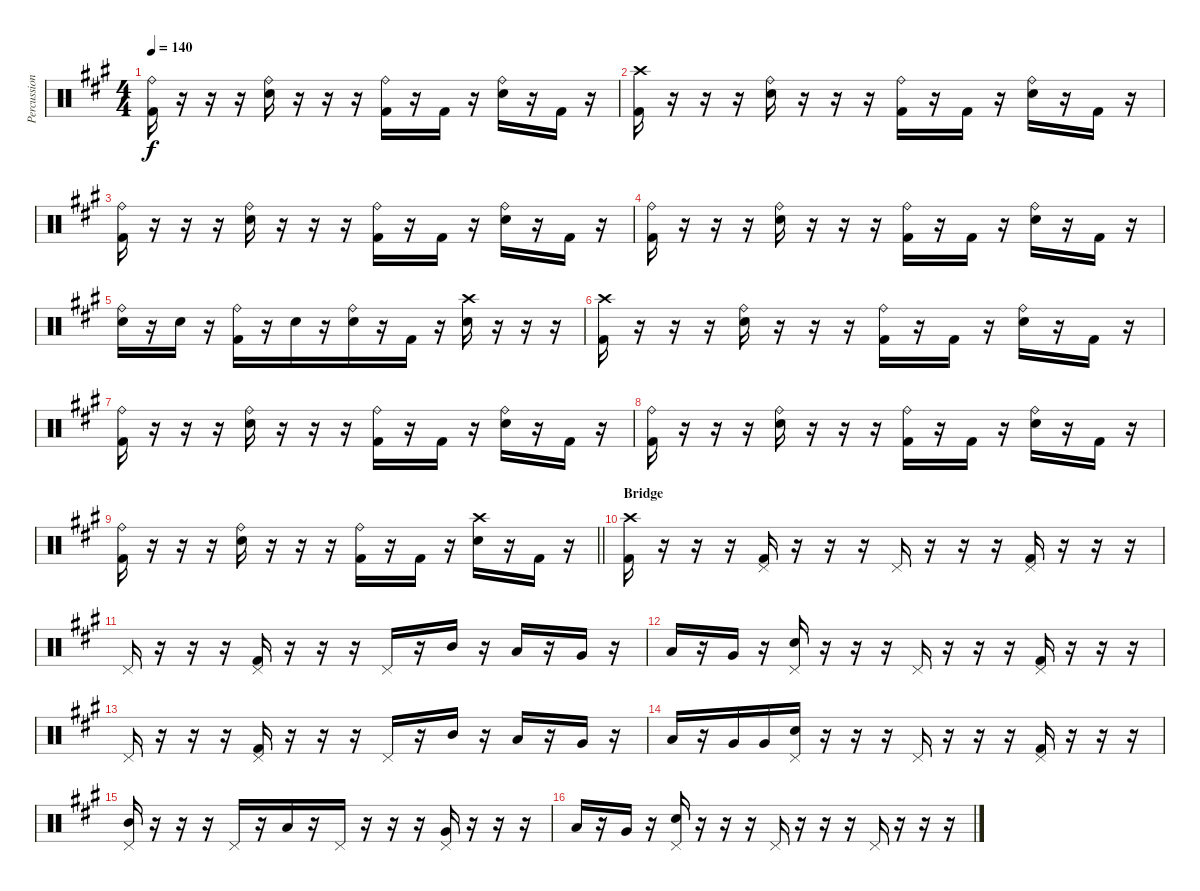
\track ("Percussion" "Percussion") {instrument percussion}
\staff {score}
\articulation defaults
\ts (4 4)
\tempo 140
\clef neutral
\ks a
("Kick (hit) 2" "Ride (bell)").16{dy f} r.16{beam merge} r.16 r.16{beam merge} ("Electric Snare (hit)" "Ride (bell)").16 r.16 r.16{beam merge} r.16 ("Kick (hit) 2" "Ride (bell)").16 r.16 "Kick (hit) 2".16 r.16 ("Electric Snare (hit)" "Ride (bell)").16 r.16{beam merge} "Kick (hit) 2".16 r.16 |
("Kick (hit) 2" "Crash high (hit)").16 r.16{beam merge} r.16 r.16{beam merge} ("Electric Snare (hit)" "Ride (bell)").16 r.16 r.16{beam merge} r.16 ("Kick (hit) 2" "Ride (bell)").16 r.16 "Kick (hit) 2".16 r.16 ("Electric Snare (hit)" "Ride (bell)").16 r.16{beam merge} "Kick (hit) 2".16 r.16 |
("Kick (hit) 2" "Ride (bell)").16 r.16{beam merge} r.16 r.16{beam merge} ("Electric Snare (hit)" "Ride (bell)").16 r.16 r.16{beam merge} r.16 ("Kick (hit) 2" "Ride (bell)").16 r.16 "Kick (hit) 2".16 r.16 ("Electric Snare (hit)" "Ride (bell)").16 r.16{beam merge} "Kick (hit) 2".16 r.16 |
("Kick (hit) 2" "Ride (bell)").16 r.16{beam merge} r.16 r.16{beam merge} ("Electric Snare (hit)" "Ride (bell)").16 r.16 r.16{beam merge} r.16 ("Kick (hit) 2" "Ride (bell)").16 r.16 "Kick (hit) 2".16 r.16 ("Electric Snare (hit)" "Ride (bell)").16 r.16{beam merge} "Kick (hit) 2".16 r.16 |
("Electric Snare (hit)" "Ride (bell)").16 r.16{beam merge} "Electric Snare (hit)".16 r.16{beam merge} ("Kick (hit) 2" "Ride (bell)").16 r.16 "Electric Snare (hit)".16{beam merge} r.16 ("Electric Snare (hit)" "Ride (bell)").16 r.16 "Kick (hit) 2".16 r.16 ("Electric Snare (hit)" "Crash high (hit)").16 r.16{beam merge} r.16 r.16 |
("Kick (hit) 2" "Crash high (hit)").16 r.16{beam merge} r.16 r.16{beam merge} ("Electric Snare (hit)" "Ride (bell)").16 r.16 r.16{beam merge} r.16 ("Kick (hit) 2" "Ride (bell)").16 r.16 "Kick (hit) 2".16 r.16 ("Electric Snare (hit)" "Ride (bell)").16 r.16{beam merge} "Kick (hit) 2".16 r.16 |
("Kick (hit) 2" "Ride (bell)").16 r.16{beam merge} r.16 r.16{beam merge} ("Electric Snare (hit)" "Ride (bell)").16 r.16 r.16{beam merge} r.16 ("Kick (hit) 2" "Ride (bell)").16 r.16 "Kick (hit) 2".16 r.16 ("Electric Snare (hit)" "Ride (bell)").16 r.16{beam merge} "Kick (hit) 2".16 r.16 |
("Kick (hit) 2" "Ride (bell)").16 r.16{beam merge} r.16 r.16{beam merge} ("Electric Snare (hit)" "Ride (bell)").16 r.16 r.16{beam merge} r.16 ("Kick (hit) 2" "Ride (bell)").16 r.16 "Kick (hit) 2".16 r.16 ("Electric Snare (hit)" "Ride (bell)").16 r.16{beam merge} "Kick (hit) 2".16 r.16 |
\barLineRight lightlight
("Kick (hit) 2" "Ride (bell)").16 r.16{beam merge} r.16 r.16{beam merge} ("Electric Snare (hit)" "Ride (bell)").16 r.16 r.16{beam merge} r.16 ("Kick (hit) 2" "Ride (bell)").16 r.16 "Kick (hit) 2".16 r.16 ("Electric Snare (hit)" "Crash high (hit)").16 r.16{beam merge} "Kick (hit) 2".16 r.16 |
\section ("" "Bridge")
("Kick (hit) 2" "Crash high (hit)").16 r.16{beam merge} r.16 r.16{beam merge} ("Kick (hit) 2" "Pedal Hi-Hat (hit)").16 r.16 r.16{beam merge} r.16 "Pedal Hi-Hat (hit)".16 r.16 r.16 r.16 ("Kick (hit) 2" "Pedal Hi-Hat (hit)").16 r.16{beam merge} r.16 r.16 |
"Pedal Hi-Hat (hit)".16 r.16{beam merge} r.16 r.16{beam merge} ("Kick (hit) 2" "Pedal Hi-Hat (hit)").16 r.16 r.16{beam merge} r.16 "Pedal Hi-Hat (hit)".16 r.16 "Mid Tom (hit)".16 r.16 "Low Tom (hit)".16 r.16{beam merge} "Very Low Tom (hit)".16 r.16 |
"Low Tom (hit)".16 r.16{beam merge} "Very Low Tom (hit)".16 r.16{beam merge} ("Electric Snare (hit)" "Pedal Hi-Hat (hit)").16 r.16 r.16{beam merge} r.16 "Pedal Hi-Hat (hit)".16 r.16 r.16 r.16 ("Kick (hit) 2" "Pedal Hi-Hat (hit)").16 r.16{beam merge} r.16 r.16 |
"Pedal Hi-Hat (hit)".16 r.16{beam merge} r.16 r.16{beam merge} ("Kick (hit) 2" "Pedal Hi-Hat (hit)").16 r.16 r.16{beam merge} r.16 "Pedal Hi-Hat (hit)".16 r.16 "Mid Tom (hit)".16 r.16 "Low Tom (hit)".16 r.16{beam merge} "Very Low Tom (hit)".16 r.16 |
"Low Tom (hit)".16 r.16{beam merge} "Very Low Tom (hit)".16 "Very Low Tom (hit)".16{beam merge} ("Electric Snare (hit)" "Pedal Hi-Hat (hit)").16 r.16 r.16{beam merge} r.16 "Pedal Hi-Hat (hit)".16 r.16 r.16 r.16 ("Kick (hit) 2" "Pedal Hi-Hat (hit)").16 r.16{beam merge} r.16 r.16 |
("Mid Tom (hit)" "Pedal Hi-Hat (hit)").16 r.16{beam merge} r.16 r.16{beam merge} "Pedal Hi-Hat (hit)".16 r.16 "Low Tom (hit)".16{beam merge} r.16 "Pedal Hi-Hat (hit)".16 r.16 r.16 r.16 ("Very Low Tom (hit)" "Pedal Hi-Hat (hit)").16 r.16{beam merge} r.16 r.16 |
"Low Tom (hit)".16 r.16{beam merge} "Very Low Tom (hit)".16 r.16{beam merge} ("Electric Snare (hit)" "Pedal Hi-Hat (hit)").16 r.16 r.16{beam merge} r.16 "Pedal Hi-Hat (hit)".16 r.16 r.16 r.16 "Pedal Hi-Hat (hit)".16 r.16{beam merge} r.16 r.16
